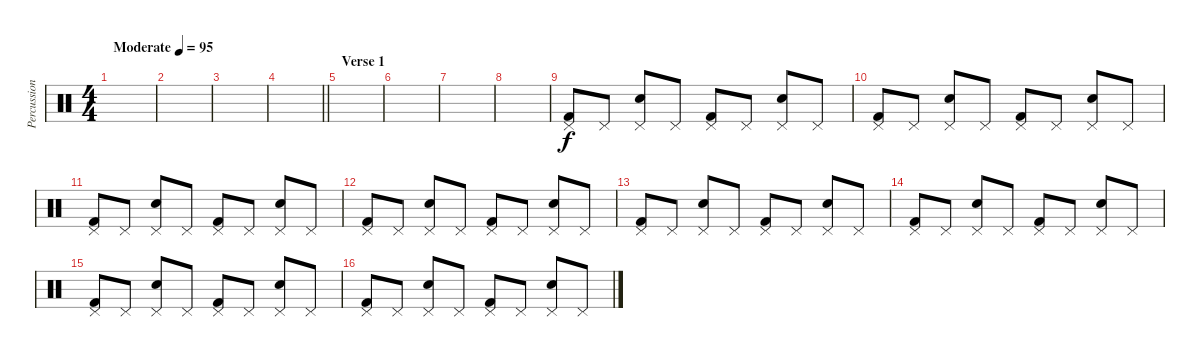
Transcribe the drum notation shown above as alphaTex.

\track ("Percussion" "Percussion") {instrument percussion}
\staff {score}
\articulation defaults
\ts (4 4)
\tempo (95 "Moderate")
\clef neutral
\ks c
|
|
|
\barLineRight lightlight
|
\section ("" "Verse 1")
|
|
|
|
("Pedal Hi-Hat (hit)" "Kick (hit) 2").8 "Pedal Hi-Hat (hit)".8 ("Pedal Hi-Hat (hit)" "Snare (hit) 2").8 "Pedal Hi-Hat (hit)".8 ("Pedal Hi-Hat (hit)" "Kick (hit) 2").8 "Pedal Hi-Hat (hit)".8 ("Pedal Hi-Hat (hit)" "Snare (hit) 2").8 "Pedal Hi-Hat (hit)".8 |
("Pedal Hi-Hat (hit)" "Kick (hit) 2").8 "Pedal Hi-Hat (hit)".8 ("Pedal Hi-Hat (hit)" "Snare (hit) 2").8 "Pedal Hi-Hat (hit)".8 ("Pedal Hi-Hat (hit)" "Kick (hit) 2").8 "Pedal Hi-Hat (hit)".8 ("Pedal Hi-Hat (hit)" "Snare (hit) 2").8 "Pedal Hi-Hat (hit)".8 |
("Pedal Hi-Hat (hit)" "Kick (hit) 2").8 "Pedal Hi-Hat (hit)".8 ("Pedal Hi-Hat (hit)" "Snare (hit) 2").8 "Pedal Hi-Hat (hit)".8 ("Pedal Hi-Hat (hit)" "Kick (hit) 2").8 "Pedal Hi-Hat (hit)".8 ("Pedal Hi-Hat (hit)" "Snare (hit) 2").8 "Pedal Hi-Hat (hit)".8 |
("Pedal Hi-Hat (hit)" "Kick (hit) 2").8 "Pedal Hi-Hat (hit)".8 ("Pedal Hi-Hat (hit)" "Snare (hit) 2").8 "Pedal Hi-Hat (hit)".8 ("Pedal Hi-Hat (hit)" "Kick (hit) 2").8 "Pedal Hi-Hat (hit)".8 ("Pedal Hi-Hat (hit)" "Snare (hit) 2").8 "Pedal Hi-Hat (hit)".8 |
("Pedal Hi-Hat (hit)" "Kick (hit) 2").8 "Pedal Hi-Hat (hit)".8 ("Pedal Hi-Hat (hit)" "Snare (hit) 2").8 "Pedal Hi-Hat (hit)".8 ("Pedal Hi-Hat (hit)" "Kick (hit) 2").8 "Pedal Hi-Hat (hit)".8 ("Pedal Hi-Hat (hit)" "Snare (hit) 2").8 "Pedal Hi-Hat (hit)".8 |
("Pedal Hi-Hat (hit)" "Kick (hit) 2").8 "Pedal Hi-Hat (hit)".8 ("Pedal Hi-Hat (hit)" "Snare (hit) 2").8 "Pedal Hi-Hat (hit)".8 ("Pedal Hi-Hat (hit)" "Kick (hit) 2").8 "Pedal Hi-Hat (hit)".8 ("Pedal Hi-Hat (hit)" "Snare (hit) 2").8 "Pedal Hi-Hat (hit)".8 |
("Pedal Hi-Hat (hit)" "Kick (hit) 2").8 "Pedal Hi-Hat (hit)".8 ("Pedal Hi-Hat (hit)" "Snare (hit) 2").8 "Pedal Hi-Hat (hit)".8 ("Pedal Hi-Hat (hit)" "Kick (hit) 2").8 "Pedal Hi-Hat (hit)".8 ("Pedal Hi-Hat (hit)" "Snare (hit) 2").8 "Pedal Hi-Hat (hit)".8 |
("Pedal Hi-Hat (hit)" "Kick (hit) 2").8 "Pedal Hi-Hat (hit)".8 ("Pedal Hi-Hat (hit)" "Snare (hit) 2").8 "Pedal Hi-Hat (hit)".8 ("Pedal Hi-Hat (hit)" "Kick (hit) 2").8 "Pedal Hi-Hat (hit)".8 ("Pedal Hi-Hat (hit)" "Snare (hit) 2").8 "Pedal Hi-Hat (hit)".8
